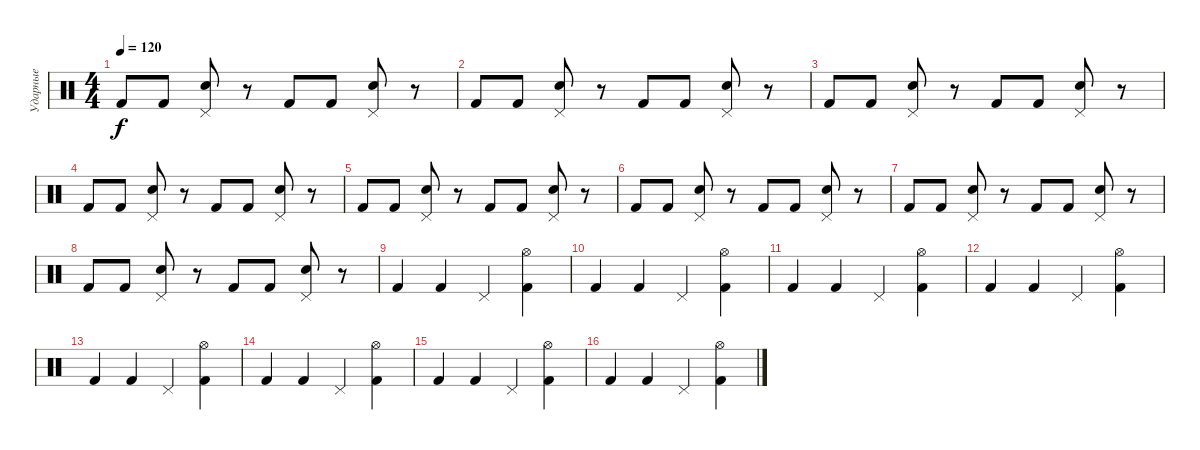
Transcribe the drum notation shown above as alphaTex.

\track ("Ударные" "Ударные") {instrument percussion}
\staff {score}
\articulation defaults
\ts (4 4)
\tempo 120
\clef neutral
\ks c "Kick (hit) 2".8{dy f} "Kick (hit) 2".8
("Snare (hit) 2" "Pedal Hi-Hat (hit)").8 r.8 "Kick (hit) 2".8 "Kick (hit) 2".8 ("Snare (hit) 2" "Pedal Hi-Hat (hit)").8 r.8 |
"Kick (hit) 2".8 "Kick (hit) 2".8 ("Snare (hit) 2" "Pedal Hi-Hat (hit)").8 r.8 "Kick (hit) 2".8 "Kick (hit) 2".8 ("Snare (hit) 2" "Pedal Hi-Hat (hit)").8 r.8 |
"Kick (hit) 2".8 "Kick (hit) 2".8 ("Snare (hit) 2" "Pedal Hi-Hat (hit)").8 r.8 "Kick (hit) 2".8 "Kick (hit) 2".8 ("Snare (hit) 2" "Pedal Hi-Hat (hit)").8 r.8 |
"Kick (hit) 2".8 "Kick (hit) 2".8 ("Snare (hit) 2" "Pedal Hi-Hat (hit)").8 r.8 "Kick (hit) 2".8 "Kick (hit) 2".8 ("Snare (hit) 2" "Pedal Hi-Hat (hit)").8 r.8 |
"Kick (hit) 2".8 "Kick (hit) 2".8 ("Snare (hit) 2" "Pedal Hi-Hat (hit)").8 r.8 "Kick (hit) 2".8 "Kick (hit) 2".8 ("Snare (hit) 2" "Pedal Hi-Hat (hit)").8 r.8 |
"Kick (hit) 2".8 "Kick (hit) 2".8 ("Snare (hit) 2" "Pedal Hi-Hat (hit)").8 r.8 "Kick (hit) 2".8 "Kick (hit) 2".8 ("Snare (hit) 2" "Pedal Hi-Hat (hit)").8 r.8 |
"Kick (hit) 2".8 "Kick (hit) 2".8 ("Snare (hit) 2" "Pedal Hi-Hat (hit)").8 r.8 "Kick (hit) 2".8 "Kick (hit) 2".8 ("Snare (hit) 2" "Pedal Hi-Hat (hit)").8 r.8 |
"Kick (hit) 2".8 "Kick (hit) 2".8 ("Snare (hit) 2" "Pedal Hi-Hat (hit)").8 r.8 "Kick (hit) 2".8 "Kick (hit) 2".8 ("Snare (hit) 2" "Pedal Hi-Hat (hit)").8 r.8 |
"Kick (hit) 2".4 "Kick (hit) 2".4 "Pedal Hi-Hat (hit)".4 ("Kick (hit) 2" "Hi-Hat (open)").4 |
"Kick (hit) 2".4 "Kick (hit) 2".4 "Pedal Hi-Hat (hit)".4 ("Kick (hit) 2" "Hi-Hat (open)").4 |
"Kick (hit) 2".4 "Kick (hit) 2".4 "Pedal Hi-Hat (hit)".4 ("Kick (hit) 2" "Hi-Hat (open)").4 |
"Kick (hit) 2".4 "Kick (hit) 2".4 "Pedal Hi-Hat (hit)".4 ("Kick (hit) 2" "Hi-Hat (open)").4 |
"Kick (hit) 2".4 "Kick (hit) 2".4 "Pedal Hi-Hat (hit)".4 ("Kick (hit) 2" "Hi-Hat (open)").4 |
"Kick (hit) 2".4 "Kick (hit) 2".4 "Pedal Hi-Hat (hit)".4 ("Kick (hit) 2" "Hi-Hat (open)").4 |
"Kick (hit) 2".4 "Kick (hit) 2".4 "Pedal Hi-Hat (hit)".4 ("Kick (hit) 2" "Hi-Hat (open)").4 |
"Kick (hit) 2".4 "Kick (hit) 2".4 "Pedal Hi-Hat (hit)".4 ("Kick (hit) 2" "Hi-Hat (open)").4
